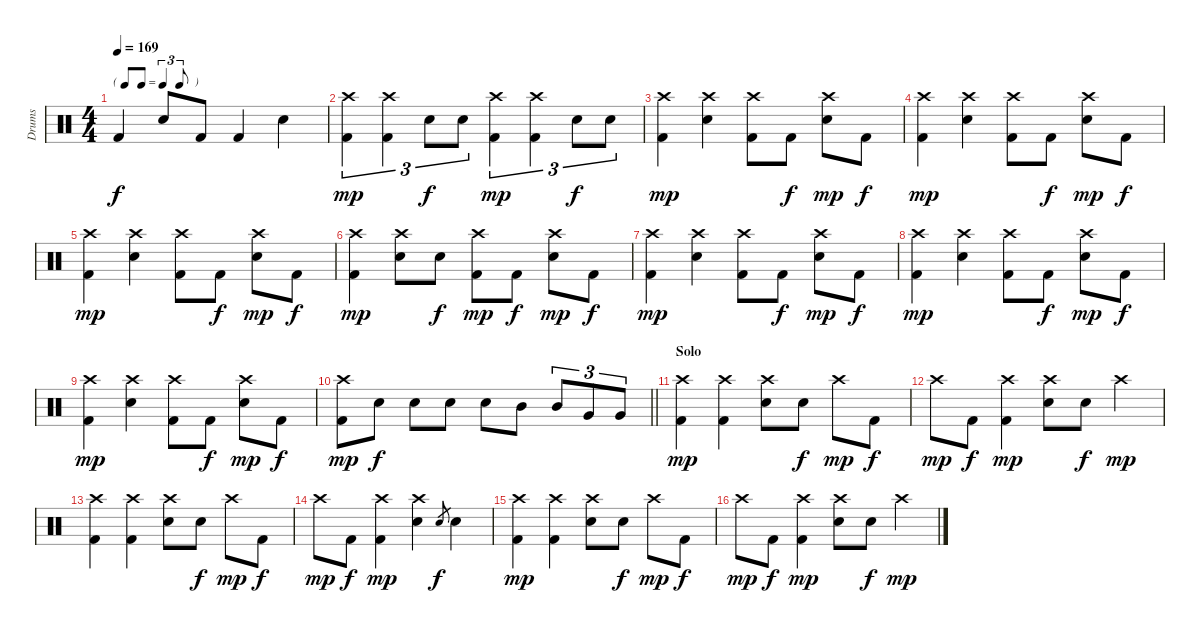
\track ("Drums" "Drums") {instrument percussion}
\staff {score}
\articulation defaults
\ts (4 4)
\tf triplet8th
\tempo 169
\clef neutral
\ks c "Kick (hit) 2".4{dy f} "Hand Clap (hit)".8 "Kick (hit) 2".8 "Kick (hit) 2".4 "Hand Clap (hit)".4
|
("Crash high (hit)" "Kick (hit) 2").4{tu (3 2) dy mp} ("Crash high (hit)" "Kick (hit) 2").4{tu (3 2)} "Snare (hit) 2".8{tu (3 2) dy f} "Snare (hit) 2".8{tu (3 2)} ("Crash high (hit)" "Kick (hit) 2").4{tu (3 2) dy mp} ("Crash high (hit)" "Kick (hit) 2").4{tu (3 2)} "Snare (hit) 2".8{tu (3 2) dy f} "Snare (hit) 2".8{tu (3 2)} |
("Crash high (hit)" "Kick (hit) 2").4{dy mp} ("Crash high (hit)" "Snare (hit) 2").4 ("Crash high (hit)" "Kick (hit) 2").8 "Kick (hit) 2".8{dy f} ("Crash high (hit)" "Snare (hit) 2").8{dy mp} "Kick (hit) 2".8{dy f} |
("Crash high (hit)" "Kick (hit) 2").4{dy mp} ("Crash high (hit)" "Snare (hit) 2").4 ("Crash high (hit)" "Kick (hit) 2").8 "Kick (hit) 2".8{dy f} ("Crash high (hit)" "Snare (hit) 2").8{dy mp} "Kick (hit) 2".8{dy f} |
("Crash high (hit)" "Kick (hit) 2").4{dy mp} ("Crash high (hit)" "Snare (hit) 2").4 ("Crash high (hit)" "Kick (hit) 2").8 "Kick (hit) 2".8{dy f} ("Crash high (hit)" "Snare (hit) 2").8{dy mp} "Kick (hit) 2".8{dy f} |
("Crash high (hit)" "Kick (hit) 2").4{dy mp} ("Crash high (hit)" "Snare (hit) 2").8 "Snare (hit) 2".8{dy f} ("Crash high (hit)" "Kick (hit) 2").8{dy mp} "Kick (hit) 2".8{dy f} ("Crash high (hit)" "Snare (hit) 2").8{dy mp} "Kick (hit) 2".8{dy f} |
("Crash high (hit)" "Kick (hit) 2").4{dy mp} ("Crash high (hit)" "Snare (hit) 2").4 ("Crash high (hit)" "Kick (hit) 2").8 "Kick (hit) 2".8{dy f} ("Crash high (hit)" "Snare (hit) 2").8{dy mp} "Kick (hit) 2".8{dy f} |
("Crash high (hit)" "Kick (hit) 2").4{dy mp} ("Crash high (hit)" "Snare (hit) 2").4 ("Crash high (hit)" "Kick (hit) 2").8 "Kick (hit) 2".8{dy f} ("Crash high (hit)" "Snare (hit) 2").8{dy mp} "Kick (hit) 2".8{dy f} |
("Crash high (hit)" "Kick (hit) 2").4{dy mp} ("Crash high (hit)" "Snare (hit) 2").4 ("Crash high (hit)" "Kick (hit) 2").8 "Kick (hit) 2".8{dy f} ("Crash high (hit)" "Snare (hit) 2").8{dy mp} "Kick (hit) 2".8{dy f} |
\barLineRight lightlight
("Crash high (hit)" "Kick (hit) 2").8{dy mp} "Snare (hit) 2".8{dy f} "Snare (hit) 2".8 "Snare (hit) 2".8 "Snare (hit) 2".8 "Mid Tom (hit)".8 "Mid Tom (hit)".8{tu (3 2)} "Very Low Tom (hit)".8{tu (3 2)} "Very Low Tom (hit)".8{tu (3 2)} |
\section ("" "Solo")
("Crash high (hit)" "Kick (hit) 2").4{dy mp} ("Crash high (hit)" "Kick (hit) 2").4 ("Crash high (hit)" "Snare (hit) 2").8 "Snare (hit) 2".8{dy f} "Crash high (hit)".8{dy mp} "Kick (hit) 2".8{dy f} |
"Crash high (hit)".8{dy mp} "Kick (hit) 2".8{dy f} ("Crash high (hit)" "Kick (hit) 2").4{dy mp} ("Crash high (hit)" "Snare (hit) 2").8 "Snare (hit) 2".8{dy f} "Crash high (hit)".4{dy mp} |
("Crash high (hit)" "Kick (hit) 2").4 ("Crash high (hit)" "Kick (hit) 2").4 ("Crash high (hit)" "Snare (hit) 2").8 "Snare (hit) 2".8{dy f} "Crash high (hit)".8{dy mp} "Kick (hit) 2".8{dy f} |
"Crash high (hit)".8{dy mp} "Kick (hit) 2".8{dy f} ("Crash high (hit)" "Kick (hit) 2").4{dy mp} ("Crash high (hit)" "Snare (hit) 2").4 "Snare (hit) 2".8{gr dy f} "Snare (hit) 2".4 |
("Crash high (hit)" "Kick (hit) 2").4{dy mp} ("Crash high (hit)" "Kick (hit) 2").4 ("Crash high (hit)" "Snare (hit) 2").8 "Snare (hit) 2".8{dy f} "Crash high (hit)".8{dy mp} "Kick (hit) 2".8{dy f} |
"Crash high (hit)".8{dy mp} "Kick (hit) 2".8{dy f} ("Crash high (hit)" "Kick (hit) 2").4{dy mp} ("Crash high (hit)" "Snare (hit) 2").8 "Snare (hit) 2".8{dy f} "Crash high (hit)".4{dy mp}
